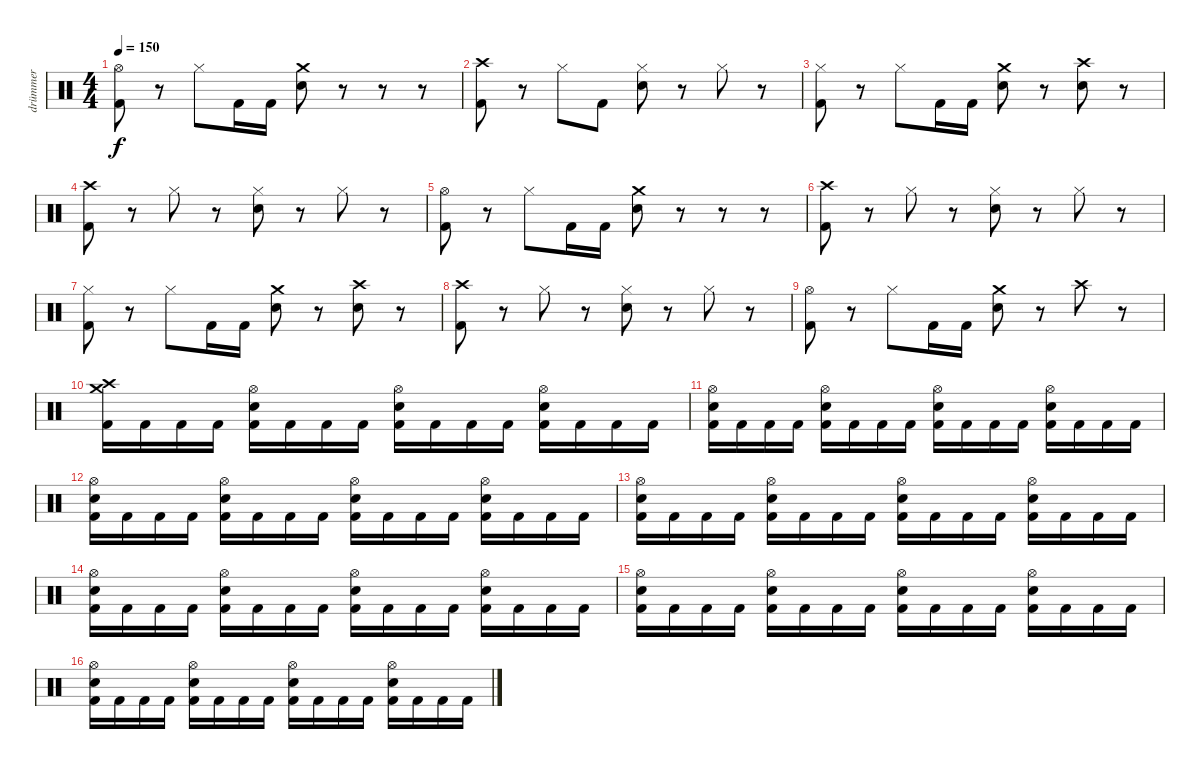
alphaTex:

\track ("drümmer" "drümmer") {instrument percussion}
\staff {score}
\articulation defaults
\ts (4 4)
\tempo 150
\clef neutral
\ks c
("Hi-Hat (open)" "Kick (hit) 2").8{dy f} r.8 "Hi-Hat (closed)".8 "Kick (hit) 2".16 "Kick (hit) 2".16 ("Crash medium (hit)" "Snare (hit) 2").8 r.8 r.8 r.8 |
("Crash high (hit)" "Kick (hit) 2").8 r.8 "Hi-Hat (closed)".8 "Kick (hit) 2".8 ("Hi-Hat (closed)" "Snare (hit) 2").8 r.8 "Hi-Hat (closed)".8 r.8 |
("Hi-Hat (closed)" "Kick (hit) 2").8 r.8 "Hi-Hat (closed)".8 "Kick (hit) 2".16 "Kick (hit) 2".16 ("Crash medium (hit)" "Snare (hit) 2").8 r.8 ("Crash high (hit)" "Snare (hit) 2").8 r.8 |
("Crash high (hit)" "Kick (hit) 2").8 r.8 "Hi-Hat (closed)".8 r.8 ("Hi-Hat (closed)" "Snare (hit) 2").8 r.8 "Hi-Hat (closed)".8 r.8 |
("Hi-Hat (open)" "Kick (hit) 2").8 r.8 "Hi-Hat (closed)".8 "Kick (hit) 2".16 "Kick (hit) 2".16 ("Crash medium (hit)" "Snare (hit) 2").8 r.8 r.8 r.8 |
("Crash high (hit)" "Kick (hit) 2").8 r.8 "Hi-Hat (closed)".8 r.8 ("Hi-Hat (closed)" "Snare (hit) 2").8 r.8 "Hi-Hat (closed)".8 r.8 |
("Hi-Hat (closed)" "Kick (hit) 2").8 r.8 "Hi-Hat (closed)".8 "Kick (hit) 2".16 "Kick (hit) 2".16 ("Crash medium (hit)" "Snare (hit) 2").8 r.8 ("Crash high (hit)" "Snare (hit) 2").8 r.8 |
("Crash high (hit)" "Kick (hit) 2").8 r.8 "Hi-Hat (closed)".8 r.8 ("Hi-Hat (closed)" "Snare (hit) 2").8 r.8 "Hi-Hat (closed)".8 r.8 |
("Hi-Hat (open)" "Kick (hit) 2").8 r.8 "Hi-Hat (closed)".8 "Kick (hit) 2".16 "Kick (hit) 2".16 ("Crash medium (hit)" "Snare (hit) 2").8 r.8 "Crash high (hit)".8 r.8 |
("Crash high (hit)" "Crash medium (hit)" "Kick (hit) 2").16 "Kick (hit) 2".16 "Kick (hit) 2".16 "Kick (hit) 2".16 ("Hi-Hat (open)" "Snare (hit) 2" "Kick (hit) 2").16 "Kick (hit) 2".16 "Kick (hit) 2".16 "Kick (hit) 2".16 ("Hi-Hat (open)" "Snare (hit) 2" "Kick (hit) 2").16 "Kick (hit) 2".16 "Kick (hit) 2".16 "Kick (hit) 2".16 ("Hi-Hat (open)" "Snare (hit) 2" "Kick (hit) 2").16 "Kick (hit) 2".16 "Kick (hit) 2".16 "Kick (hit) 2".16 |
("Hi-Hat (open)" "Snare (hit) 2" "Kick (hit) 2").16 "Kick (hit) 2".16 "Kick (hit) 2".16 "Kick (hit) 2".16 ("Hi-Hat (open)" "Snare (hit) 2" "Kick (hit) 2").16 "Kick (hit) 2".16 "Kick (hit) 2".16 "Kick (hit) 2".16 ("Hi-Hat (open)" "Snare (hit) 2" "Kick (hit) 2").16 "Kick (hit) 2".16 "Kick (hit) 2".16 "Kick (hit) 2".16 ("Hi-Hat (open)" "Snare (hit) 2" "Kick (hit) 2").16 "Kick (hit) 2".16 "Kick (hit) 2".16 "Kick (hit) 2".16 |
("Hi-Hat (open)" "Snare (hit) 2" "Kick (hit) 2").16 "Kick (hit) 2".16 "Kick (hit) 2".16 "Kick (hit) 2".16 ("Hi-Hat (open)" "Snare (hit) 2" "Kick (hit) 2").16 "Kick (hit) 2".16 "Kick (hit) 2".16 "Kick (hit) 2".16 ("Hi-Hat (open)" "Snare (hit) 2" "Kick (hit) 2").16 "Kick (hit) 2".16 "Kick (hit) 2".16 "Kick (hit) 2".16 ("Hi-Hat (open)" "Snare (hit) 2" "Kick (hit) 2").16 "Kick (hit) 2".16 "Kick (hit) 2".16 "Kick (hit) 2".16 |
("Hi-Hat (open)" "Snare (hit) 2" "Kick (hit) 2").16 "Kick (hit) 2".16 "Kick (hit) 2".16 "Kick (hit) 2".16 ("Hi-Hat (open)" "Snare (hit) 2" "Kick (hit) 2").16 "Kick (hit) 2".16 "Kick (hit) 2".16 "Kick (hit) 2".16 ("Hi-Hat (open)" "Snare (hit) 2" "Kick (hit) 2").16 "Kick (hit) 2".16 "Kick (hit) 2".16 "Kick (hit) 2".16 ("Hi-Hat (open)" "Snare (hit) 2" "Kick (hit) 2").16 "Kick (hit) 2".16 "Kick (hit) 2".16 "Kick (hit) 2".16 |
("Hi-Hat (open)" "Snare (hit) 2" "Kick (hit) 2").16 "Kick (hit) 2".16 "Kick (hit) 2".16 "Kick (hit) 2".16 ("Hi-Hat (open)" "Snare (hit) 2" "Kick (hit) 2").16 "Kick (hit) 2".16 "Kick (hit) 2".16 "Kick (hit) 2".16 ("Hi-Hat (open)" "Snare (hit) 2" "Kick (hit) 2").16 "Kick (hit) 2".16 "Kick (hit) 2".16 "Kick (hit) 2".16 ("Hi-Hat (open)" "Snare (hit) 2" "Kick (hit) 2").16 "Kick (hit) 2".16 "Kick (hit) 2".16 "Kick (hit) 2".16 |
("Hi-Hat (open)" "Snare (hit) 2" "Kick (hit) 2").16 "Kick (hit) 2".16 "Kick (hit) 2".16 "Kick (hit) 2".16 ("Hi-Hat (open)" "Snare (hit) 2" "Kick (hit) 2").16 "Kick (hit) 2".16 "Kick (hit) 2".16 "Kick (hit) 2".16 ("Hi-Hat (open)" "Snare (hit) 2" "Kick (hit) 2").16 "Kick (hit) 2".16 "Kick (hit) 2".16 "Kick (hit) 2".16 ("Hi-Hat (open)" "Snare (hit) 2" "Kick (hit) 2").16 "Kick (hit) 2".16 "Kick (hit) 2".16 "Kick (hit) 2".16 |
("Hi-Hat (open)" "Snare (hit) 2" "Kick (hit) 2").16 "Kick (hit) 2".16 "Kick (hit) 2".16 "Kick (hit) 2".16 ("Hi-Hat (open)" "Snare (hit) 2" "Kick (hit) 2").16 "Kick (hit) 2".16 "Kick (hit) 2".16 "Kick (hit) 2".16 ("Hi-Hat (open)" "Snare (hit) 2" "Kick (hit) 2").16 "Kick (hit) 2".16 "Kick (hit) 2".16 "Kick (hit) 2".16 ("Hi-Hat (open)" "Snare (hit) 2" "Kick (hit) 2").16 "Kick (hit) 2".16 "Kick (hit) 2".16 "Kick (hit) 2".16
